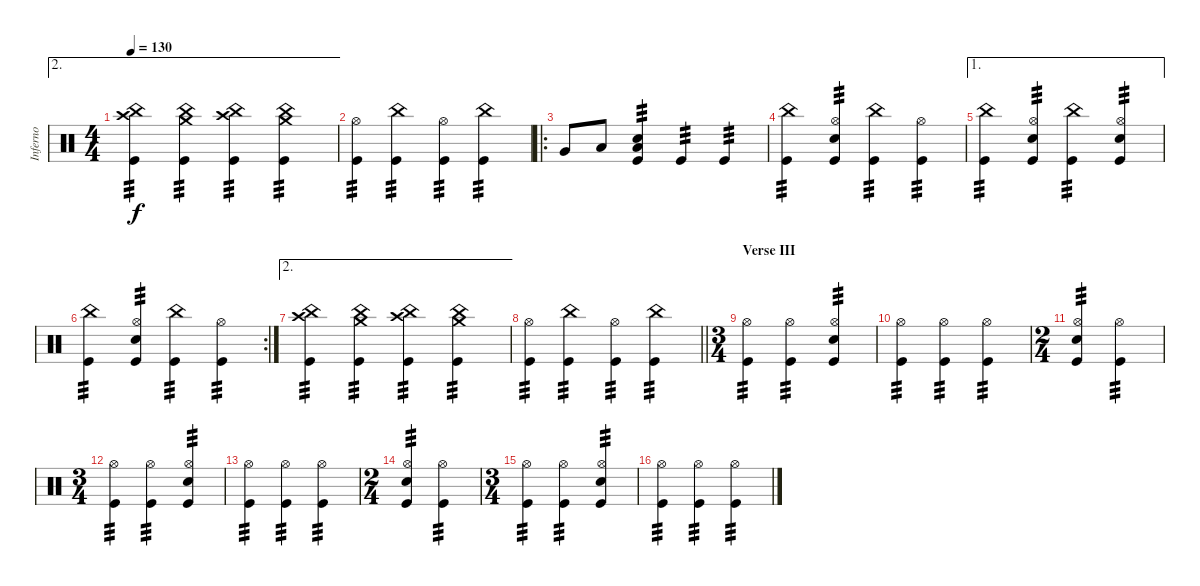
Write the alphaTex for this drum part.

\track ("Inferno" "Inferno") {instrument percussion}
\staff {score}
\articulation defaults
\ae 2
\ts (4 4)
\tempo 130
\clef neutral
\ks c
("China (hit)" "Crash high (hit)" "Kick (hit)").4{tp 3 dy f} ("China (hit)" "Crash medium (hit)" "Kick (hit)").4{tp 3} ("China (hit)" "Crash high (hit)" "Kick (hit)").4{tp 3} ("Crash medium (hit)" "China (hit)" "Kick (hit)").4{tp 3} |
("Hi-Hat (open)" "Kick (hit)").4{tp 3} ("China (hit)" "Kick (hit)").4{tp 3} ("Hi-Hat (open)" "Kick (hit)").4{tp 3} ("China (hit)" "Kick (hit)").4{tp 3} |
\ro "Very Low Tom (hit)".8 "Low Floor Tom (hit)".8
("Low Floor Tom (hit)" "Snare (hit) 2" "Kick (hit)").4{tp 3} "Kick (hit)".4{tp 3} "Kick (hit)".4{tp 3} |
("China (hit)" "Kick (hit)").4{tp 3} ("Hi-Hat (open)" "Snare (hit) 2" "Kick (hit)").4{tp 3} ("China (hit)" "Kick (hit)").4{tp 3} ("Hi-Hat (open)" "Kick (hit)").4{tp 3} |
\ae 1
("China (hit)" "Kick (hit)").4{tp 3} ("Hi-Hat (open)" "Snare (hit) 2" "Kick (hit)").4{tp 3} ("China (hit)" "Kick (hit)").4{tp 3} ("Hi-Hat (open)" "Snare (hit) 2" "Kick (hit)").4{tp 3} |
\rc 2
("China (hit)" "Kick (hit)").4{tp 3} ("Hi-Hat (open)" "Snare (hit) 2" "Kick (hit)").4{tp 3} ("China (hit)" "Kick (hit)").4{tp 3} ("Hi-Hat (open)" "Kick (hit)").4{tp 3} |
\ae 2
("China (hit)" "Crash high (hit)" "Kick (hit)").4{tp 3} ("China (hit)" "Crash medium (hit)" "Kick (hit)").4{tp 3} ("China (hit)" "Crash high (hit)" "Kick (hit)").4{tp 3} ("Crash medium (hit)" "China (hit)" "Kick (hit)").4{tp 3} |
\barLineRight lightlight
("Hi-Hat (open)" "Kick (hit)").4{tp 3} ("China (hit)" "Kick (hit)").4{tp 3} ("Hi-Hat (open)" "Kick (hit)").4{tp 3} ("China (hit)" "Kick (hit)").4{tp 3} |
\ts (3 4)
\section ("" "Verse III")
("Hi-Hat (open)" "Kick (hit)").4{tp 3} ("Hi-Hat (open)" "Kick (hit)").4{tp 3} ("Hi-Hat (open)" "Snare (hit) 2" "Kick (hit)").4{tp 3} |
("Hi-Hat (open)" "Kick (hit)").4{tp 3} ("Hi-Hat (open)" "Kick (hit)").4{tp 3} ("Hi-Hat (open)" "Kick (hit)").4{tp 3} |
\ts (2 4)
("Hi-Hat (open)" "Snare (hit) 2" "Kick (hit)").4{tp 3} ("Hi-Hat (open)" "Kick (hit)").4{tp 3} |
\ts (3 4)
("Hi-Hat (open)" "Kick (hit)").4{tp 3} ("Hi-Hat (open)" "Kick (hit)").4{tp 3} ("Hi-Hat (open)" "Snare (hit) 2" "Kick (hit)").4{tp 3} |
("Hi-Hat (open)" "Kick (hit)").4{tp 3} ("Hi-Hat (open)" "Kick (hit)").4{tp 3} ("Hi-Hat (open)" "Kick (hit)").4{tp 3} |
\ts (2 4)
("Hi-Hat (open)" "Snare (hit) 2" "Kick (hit)").4{tp 3} ("Hi-Hat (open)" "Kick (hit)").4{tp 3} |
\ts (3 4)
("Hi-Hat (open)" "Kick (hit)").4{tp 3} ("Hi-Hat (open)" "Kick (hit)").4{tp 3} ("Hi-Hat (open)" "Snare (hit) 2" "Kick (hit)").4{tp 3} |
("Hi-Hat (open)" "Kick (hit)").4{tp 3} ("Hi-Hat (open)" "Kick (hit)").4{tp 3} ("Hi-Hat (open)" "Kick (hit)").4{tp 3}
